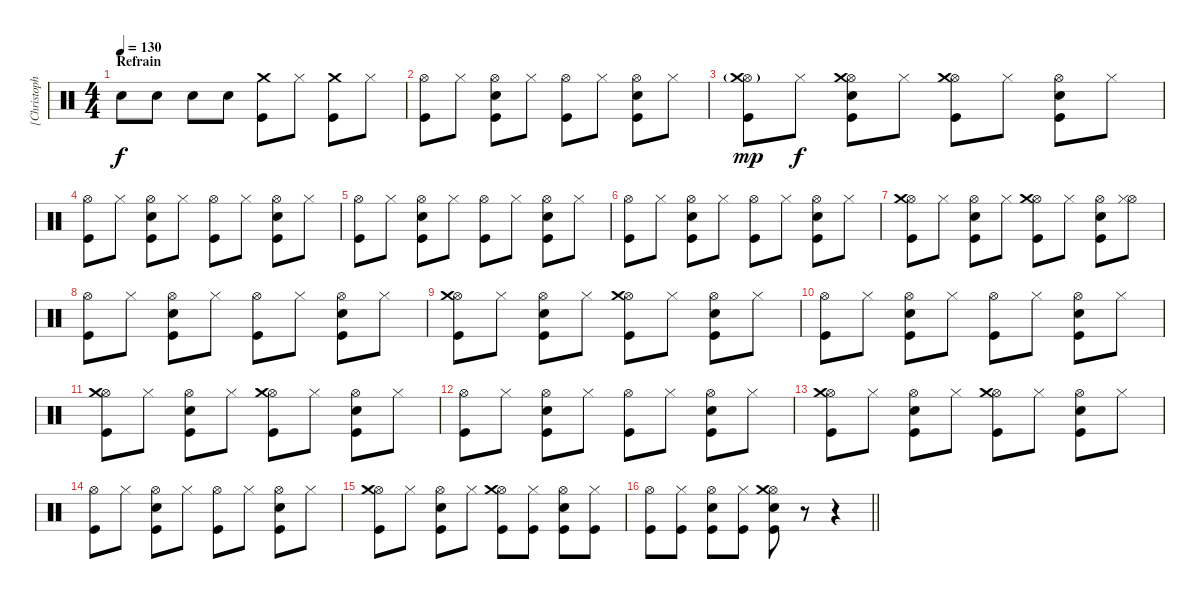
\track ("[Christoph Schneider]  Drums" "[Christoph") {instrument percussion}
\staff {score}
\articulation defaults
\ts (4 4)
\section ("" "Refrain")
\tempo 130
\clef neutral
\ks c "Snare (hit) 2".8{dy f} "Snare (hit) 2".8 "Snare (hit) 2".8 "Snare (hit) 2".8
("Crash medium (hit)" "Kick (hit)").8 "Hi-Hat (closed)".8 ("Crash medium (hit)" "Kick (hit)").8 "Hi-Hat (closed)".8 |
("Hi-Hat (open)" "Kick (hit)").8 "Hi-Hat (closed)".8 ("Hi-Hat (open)" "Snare (hit) 2" "Kick (hit)").8 "Hi-Hat (closed)".8 ("Hi-Hat (open)" "Kick (hit)").8 "Hi-Hat (closed)".8 ("Hi-Hat (open)" "Snare (hit) 2" "Kick (hit)").8 "Hi-Hat (closed)".8 |
("Hi-Hat (open)" "Crash medium (hit)"{g} "Kick (hit)").8{dy mp} "Hi-Hat (closed)".8{dy f} ("Hi-Hat (open)" "Snare (hit) 2" "Crash medium (hit)" "Kick (hit)").8 "Hi-Hat (closed)".8 ("Hi-Hat (open)" "Crash medium (hit)" "Kick (hit)").8 "Hi-Hat (closed)".8 ("Hi-Hat (open)" "Snare (hit) 2" "Kick (hit)").8 "Hi-Hat (closed)".8 |
("Hi-Hat (open)" "Kick (hit)").8 "Hi-Hat (closed)".8 ("Hi-Hat (open)" "Snare (hit) 2" "Kick (hit)").8 "Hi-Hat (closed)".8 ("Hi-Hat (open)" "Kick (hit)").8 "Hi-Hat (closed)".8 ("Hi-Hat (open)" "Snare (hit) 2" "Kick (hit)").8 "Hi-Hat (closed)".8 |
("Hi-Hat (open)" "Kick (hit)").8 "Hi-Hat (closed)".8 ("Hi-Hat (open)" "Snare (hit) 2" "Kick (hit)").8 "Hi-Hat (closed)".8 ("Hi-Hat (open)" "Kick (hit)").8 "Hi-Hat (closed)".8 ("Hi-Hat (open)" "Snare (hit) 2" "Kick (hit)").8 "Hi-Hat (closed)".8 |
("Hi-Hat (open)" "Kick (hit)").8 "Hi-Hat (closed)".8 ("Hi-Hat (open)" "Snare (hit) 2" "Kick (hit)").8 "Hi-Hat (closed)".8 ("Hi-Hat (open)" "Kick (hit)").8 "Hi-Hat (closed)".8 ("Hi-Hat (open)" "Snare (hit) 2" "Kick (hit)").8 "Hi-Hat (closed)".8 |
("Hi-Hat (open)" "Crash medium (hit)" "Kick (hit)").8 "Hi-Hat (closed)".8 ("Hi-Hat (open)" "Snare (hit) 2" "Kick (hit)").8 "Hi-Hat (closed)".8 ("Hi-Hat (open)" "Crash medium (hit)" "Kick (hit)").8 "Hi-Hat (closed)".8 ("Hi-Hat (open)" "Snare (hit) 2" "Kick (hit)").8 ("Hi-Hat (open)" "Hi-Hat (closed)").8 |
("Hi-Hat (open)" "Kick (hit)").8 "Hi-Hat (closed)".8 ("Hi-Hat (open)" "Snare (hit) 2" "Kick (hit)").8 "Hi-Hat (closed)".8 ("Hi-Hat (open)" "Kick (hit)").8 "Hi-Hat (closed)".8 ("Hi-Hat (open)" "Snare (hit) 2" "Kick (hit)").8 "Hi-Hat (closed)".8 |
("Hi-Hat (open)" "Crash medium (hit)" "Kick (hit)").8 "Hi-Hat (closed)".8 ("Hi-Hat (open)" "Snare (hit) 2" "Kick (hit)").8 "Hi-Hat (closed)".8 ("Hi-Hat (open)" "Crash medium (hit)" "Kick (hit)").8 "Hi-Hat (closed)".8 ("Hi-Hat (open)" "Snare (hit) 2" "Kick (hit)").8 "Hi-Hat (closed)".8 |
("Hi-Hat (open)" "Kick (hit)").8 "Hi-Hat (closed)".8 ("Hi-Hat (open)" "Snare (hit) 2" "Kick (hit)").8 "Hi-Hat (closed)".8 ("Hi-Hat (open)" "Kick (hit)").8 "Hi-Hat (closed)".8 ("Hi-Hat (open)" "Snare (hit) 2" "Kick (hit)").8 "Hi-Hat (closed)".8 |
("Hi-Hat (open)" "Crash medium (hit)" "Kick (hit)").8 "Hi-Hat (closed)".8 ("Hi-Hat (open)" "Snare (hit) 2" "Kick (hit)").8 "Hi-Hat (closed)".8 ("Hi-Hat (open)" "Crash medium (hit)" "Kick (hit)").8 "Hi-Hat (closed)".8 ("Hi-Hat (open)" "Snare (hit) 2" "Kick (hit)").8 "Hi-Hat (closed)".8 |
("Hi-Hat (open)" "Kick (hit)").8 "Hi-Hat (closed)".8 ("Hi-Hat (open)" "Snare (hit) 2" "Kick (hit)").8 "Hi-Hat (closed)".8 ("Hi-Hat (open)" "Kick (hit)").8 "Hi-Hat (closed)".8 ("Hi-Hat (open)" "Snare (hit) 2" "Kick (hit)").8 "Hi-Hat (closed)".8 |
("Hi-Hat (open)" "Crash medium (hit)" "Kick (hit)").8 "Hi-Hat (closed)".8 ("Hi-Hat (open)" "Snare (hit) 2" "Kick (hit)").8 "Hi-Hat (closed)".8 ("Hi-Hat (open)" "Crash medium (hit)" "Kick (hit)").8 "Hi-Hat (closed)".8 ("Hi-Hat (open)" "Snare (hit) 2" "Kick (hit)").8 "Hi-Hat (closed)".8 |
("Hi-Hat (open)" "Kick (hit)").8 "Hi-Hat (closed)".8 ("Hi-Hat (open)" "Snare (hit) 2" "Kick (hit)").8 "Hi-Hat (closed)".8 ("Hi-Hat (open)" "Kick (hit)").8 "Hi-Hat (closed)".8 ("Hi-Hat (open)" "Snare (hit) 2" "Kick (hit)").8 "Hi-Hat (closed)".8 |
("Hi-Hat (open)" "Crash medium (hit)" "Kick (hit)").8 "Hi-Hat (closed)".8 ("Hi-Hat (open)" "Snare (hit) 2" "Kick (hit)").8 "Hi-Hat (closed)".8 ("Hi-Hat (open)" "Crash medium (hit)" "Kick (hit)").8 ("Kick (hit)" "Hi-Hat (closed)").8 ("Hi-Hat (open)" "Snare (hit) 2" "Kick (hit)").8 ("Kick (hit)" "Hi-Hat (closed)").8 |
\barLineRight lightlight
("Hi-Hat (open)" "Kick (hit)").8 ("Kick (hit)" "Hi-Hat (closed)").8 ("Hi-Hat (open)" "Snare (hit) 2" "Kick (hit)").8 ("Kick (hit)" "Hi-Hat (closed)").8 ("Hi-Hat (open)" "Crash medium (hit)" "Snare (hit) 2" "Kick (hit)").8 r.8 r.4
